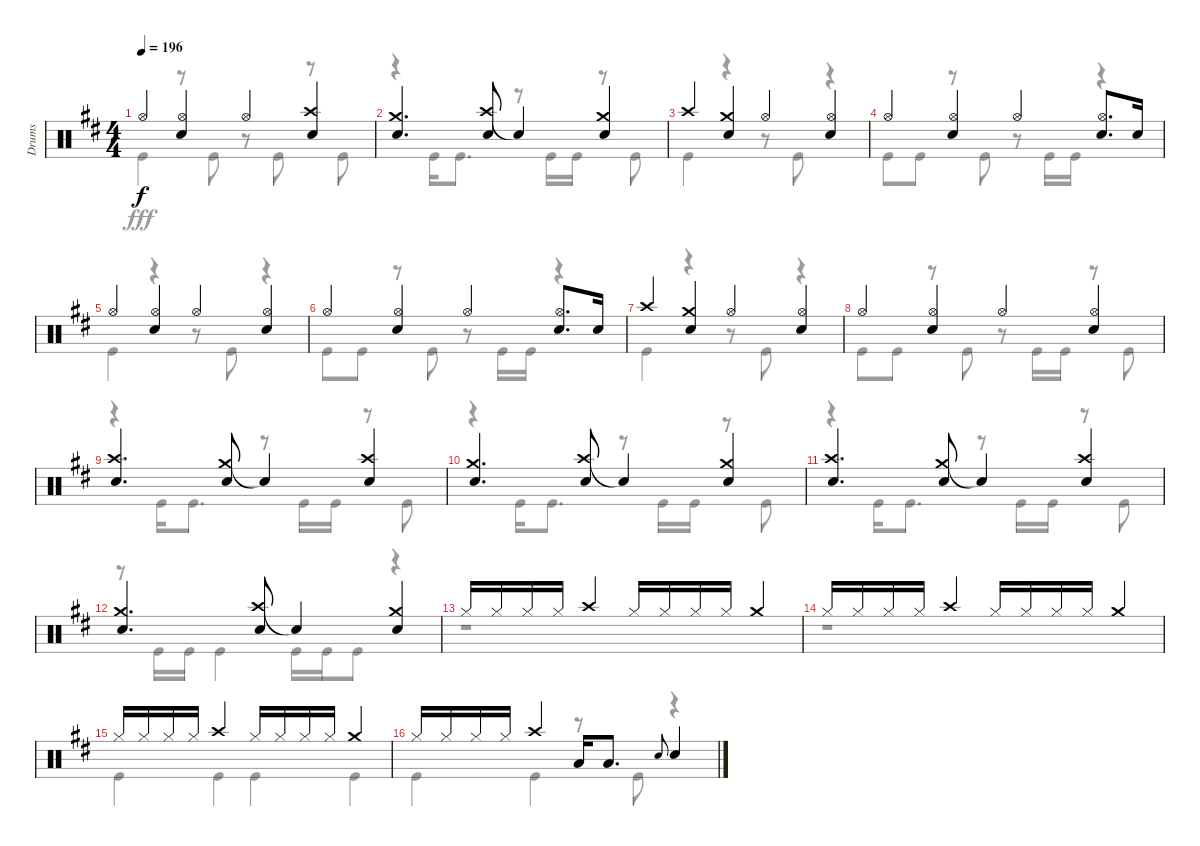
\track ("Drums" "Drums") {instrument percussion}
\staff {score}
\articulation defaults
\voice
\ts (4 4)
\tempo 196
\clef neutral
\ks d "Hi-Hat (open)".4{dy f}
("Hi-Hat (open)" "Snare (hit) 2").4 "Hi-Hat (open)".4 ("Crash high (hit)" "Snare (hit) 2").4 |
("Crash medium (hit)" "Snare (hit) 2").4{d} ("Crash high (hit)" "Snare (hit) 2").8 "Snare (hit)"{t}.4 ("Crash medium (hit)" "Snare (hit) 2").4 |
"Crash high (hit)".4 ("Crash medium (hit)" "Snare (hit) 2").4 "Hi-Hat (open)".4 ("Hi-Hat (open)" "Snare (hit) 2").4 |
"Hi-Hat (open)".4 ("Hi-Hat (open)" "Snare (hit) 2").4 "Hi-Hat (open)".4 ("Hi-Hat (open)" "Snare (hit) 2").8{d} "Snare (hit) 2".16 |
"Hi-Hat (open)".4 ("Hi-Hat (open)" "Snare (hit) 2").4 "Hi-Hat (open)".4 ("Hi-Hat (open)" "Snare (hit) 2").4 |
"Hi-Hat (open)".4 ("Hi-Hat (open)" "Snare (hit) 2").4 "Hi-Hat (open)".4 ("Hi-Hat (open)" "Snare (hit) 2").8{d} "Snare (hit) 2".16 |
"Crash high (hit)".4 ("Crash medium (hit)" "Snare (hit) 2").4 "Hi-Hat (open)".4 ("Hi-Hat (open)" "Snare (hit) 2").4 |
"Hi-Hat (open)".4 ("Hi-Hat (open)" "Snare (hit) 2").4 "Hi-Hat (open)".4 ("Hi-Hat (open)" "Snare (hit) 2").4 |
("Crash high (hit)" "Snare (hit) 2").4{d} ("Crash medium (hit)" "Snare (hit) 2").8 "Snare (hit)"{t}.4 ("Crash high (hit)" "Snare (hit) 2").4 |
("Crash medium (hit)" "Snare (hit) 2").4{d} ("Crash high (hit)" "Snare (hit) 2").8 "Snare (hit)"{t}.4 ("Crash medium (hit)" "Snare (hit) 2").4 |
("Crash high (hit)" "Snare (hit) 2").4{d} ("Crash medium (hit)" "Snare (hit) 2").8 "Snare (hit)"{t}.4 ("Crash high (hit)" "Snare (hit) 2").4 |
("Crash medium (hit)" "Snare (hit) 2").4{d} ("Crash high (hit)" "Snare (hit) 2").8 "Snare (hit)"{t}.4 ("Crash medium (hit)" "Snare (hit) 2").4 |
"Hi-Hat (closed)".16 "Hi-Hat (closed)".16 "Hi-Hat (closed)".16 "Hi-Hat (closed)".16 "Crash high (hit)".4 "Hi-Hat (closed)".16 "Hi-Hat (closed)".16 "Hi-Hat (closed)".16 "Hi-Hat (closed)".16 "Crash medium (hit)".4 |
"Hi-Hat (closed)".16 "Hi-Hat (closed)".16 "Hi-Hat (closed)".16 "Hi-Hat (closed)".16 "Crash high (hit)".4 "Hi-Hat (closed)".16 "Hi-Hat (closed)".16 "Hi-Hat (closed)".16 "Hi-Hat (closed)".16 "Crash medium (hit)".4 |
"Hi-Hat (closed)".16 "Hi-Hat (closed)".16 "Hi-Hat (closed)".16 "Hi-Hat (closed)".16 "Crash high (hit)".4 "Hi-Hat (closed)".16 "Hi-Hat (closed)".16 "Hi-Hat (closed)".16 "Hi-Hat (closed)".16 "Crash medium (hit)".4 |
"Hi-Hat (closed)".16 "Hi-Hat (closed)".16 "Hi-Hat (closed)".16 "Hi-Hat (closed)".16 "Crash high (hit)".4 "Low Tom (hit)".16 "Low Tom (hit)".8{d} "Snare (hit) 2".8{gr onbeat} "Snare (hit) 2".4
\voice
\clef neutral
\ottava regular
\simile none
\ks d "Kick (hit)".4{dy fff}
r.8 "Kick (hit)".8 r.8 "Kick (hit)".8 r.8 "Kick (hit)".8 |
r.4 "Kick (hit)".16 "Kick (hit)".8{d} r.8 "Kick (hit)".16 "Kick (hit)".16 r.8 "Kick (hit)".8 |
"Kick (hit)".4 r.4 r.8 "Kick (hit)".8 r.4 |
"Kick (hit)".8 "Kick (hit)".8 r.8 "Kick (hit)".8 r.8 "Kick (hit)".16 "Kick (hit)".16 r.4 |
"Kick (hit)".4 r.4 r.8 "Kick (hit)".8 r.4 |
"Kick (hit)".8 "Kick (hit)".8 r.8 "Kick (hit)".8 r.8 "Kick (hit)".16 "Kick (hit)".16 r.4 |
"Kick (hit)".4 r.4 r.8 "Kick (hit)".8 r.4 |
"Kick (hit)".8 "Kick (hit)".8 r.8 "Kick (hit)".8 r.8 "Kick (hit)".16 "Kick (hit)".16 r.8 "Kick (hit)".8 |
r.4 "Kick (hit)".16 "Kick (hit)".8{d} r.8 "Kick (hit)".16 "Kick (hit)".16 r.8 "Kick (hit)".8 |
r.4 "Kick (hit)".16 "Kick (hit)".8{d} r.8 "Kick (hit)".16 "Kick (hit)".16 r.8 "Kick (hit)".8 |
r.4 "Kick (hit)".16 "Kick (hit)".8{d} r.8 "Kick (hit)".16 "Kick (hit)".16 r.8 "Kick (hit)".8 |
r.8 "Kick (hit)".16 "Kick (hit)".16 "Kick (hit)".4 "Kick (hit)".16 "Kick (hit)".16 "Kick (hit)".8 r.4 |
r.1 |
r.1 |
"Kick (hit)".4 "Kick (hit)".4 "Kick (hit)".4 "Kick (hit)".4 |
"Kick (hit)".4 "Kick (hit)".4 r.8 "Kick (hit)".8 r.4
